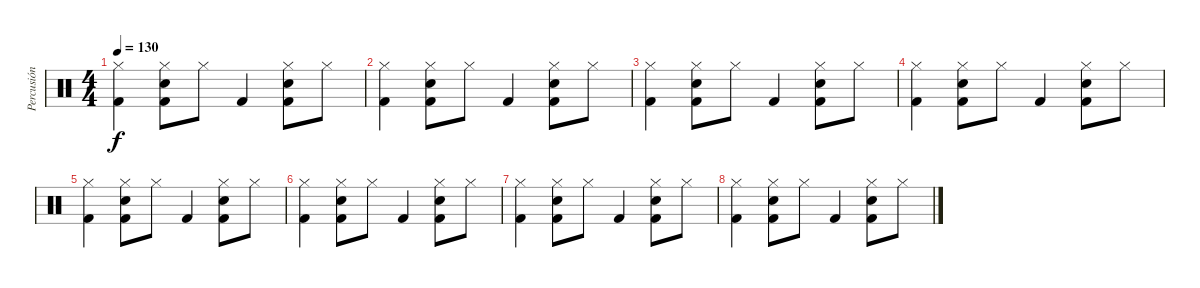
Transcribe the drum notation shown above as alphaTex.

\track ("Percusión" "Percusión") {instrument percussion}
\staff {score}
\articulation defaults
\ts (4 4)
\tempo 130
\clef neutral
\ks c
("Hi-Hat (closed)" "Kick (hit) 2").4{dy f} ("Hi-Hat (closed)" "Snare (hit) 2" "Kick (hit) 2").8 "Hi-Hat (closed)".8 "Kick (hit) 2".4 ("Hi-Hat (closed)" "Snare (hit) 2" "Kick (hit) 2").8 "Hi-Hat (closed)".8 |
("Hi-Hat (closed)" "Kick (hit) 2").4 ("Hi-Hat (closed)" "Snare (hit) 2" "Kick (hit) 2").8 "Hi-Hat (closed)".8 "Kick (hit) 2".4 ("Hi-Hat (closed)" "Snare (hit) 2" "Kick (hit) 2").8 "Hi-Hat (closed)".8 |
("Hi-Hat (closed)" "Kick (hit) 2").4 ("Hi-Hat (closed)" "Snare (hit) 2" "Kick (hit) 2").8 "Hi-Hat (closed)".8 "Kick (hit) 2".4 ("Hi-Hat (closed)" "Snare (hit) 2" "Kick (hit) 2").8 "Hi-Hat (closed)".8 |
("Hi-Hat (closed)" "Kick (hit) 2").4 ("Hi-Hat (closed)" "Snare (hit) 2" "Kick (hit) 2").8 "Hi-Hat (closed)".8 "Kick (hit) 2".4 ("Hi-Hat (closed)" "Snare (hit) 2" "Kick (hit) 2").8 "Hi-Hat (closed)".8 |
("Hi-Hat (closed)" "Kick (hit) 2").4 ("Hi-Hat (closed)" "Snare (hit) 2" "Kick (hit) 2").8 "Hi-Hat (closed)".8 "Kick (hit) 2".4 ("Hi-Hat (closed)" "Snare (hit) 2" "Kick (hit) 2").8 "Hi-Hat (closed)".8 |
("Hi-Hat (closed)" "Kick (hit) 2").4 ("Hi-Hat (closed)" "Snare (hit) 2" "Kick (hit) 2").8 "Hi-Hat (closed)".8 "Kick (hit) 2".4 ("Hi-Hat (closed)" "Snare (hit) 2" "Kick (hit) 2").8 "Hi-Hat (closed)".8 |
("Hi-Hat (closed)" "Kick (hit) 2").4 ("Hi-Hat (closed)" "Snare (hit) 2" "Kick (hit) 2").8 "Hi-Hat (closed)".8 "Kick (hit) 2".4 ("Hi-Hat (closed)" "Snare (hit) 2" "Kick (hit) 2").8 "Hi-Hat (closed)".8 |
("Hi-Hat (closed)" "Kick (hit) 2").4 ("Hi-Hat (closed)" "Snare (hit) 2" "Kick (hit) 2").8 "Hi-Hat (closed)".8 "Kick (hit) 2".4 ("Hi-Hat (closed)" "Snare (hit) 2" "Kick (hit) 2").8 "Hi-Hat (closed)".8
